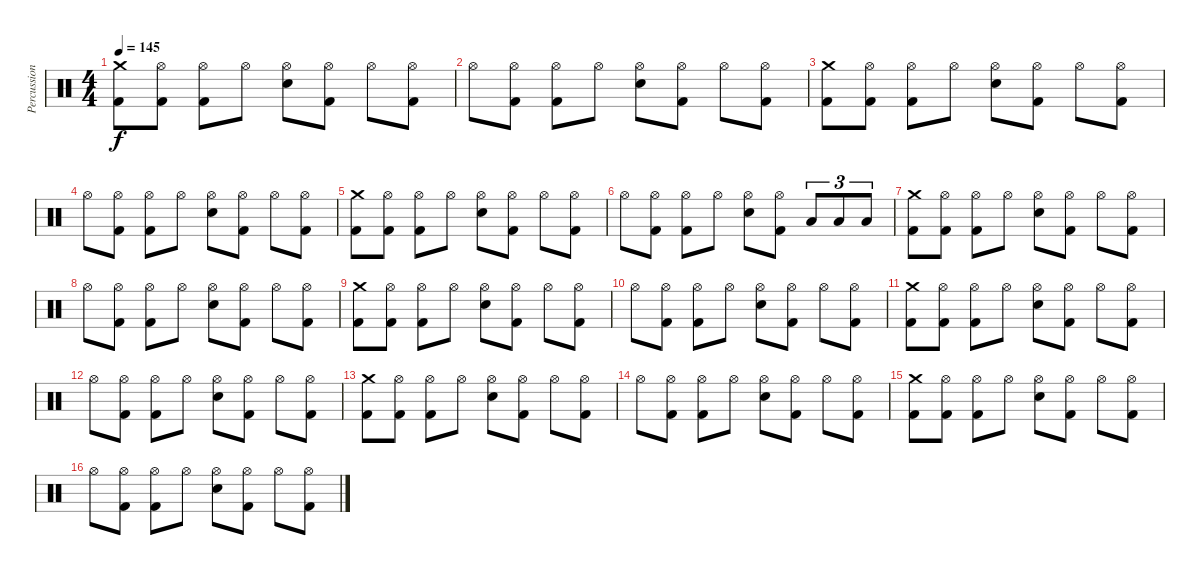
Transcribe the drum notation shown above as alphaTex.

\track ("Percussion" "Percussion") {instrument percussion}
\staff {score}
\articulation defaults
\ts (4 4)
\tempo 145
\clef neutral
\ks c
("Crash medium (hit)" "Kick (hit) 2").8{dy f} ("Hi-Hat (open)" "Kick (hit) 2").8 ("Hi-Hat (open)" "Kick (hit) 2").8 "Hi-Hat (open)".8 ("Hi-Hat (open)" "Electric Snare (hit)").8 ("Hi-Hat (open)" "Kick (hit) 2").8 "Hi-Hat (open)".8 ("Hi-Hat (open)" "Kick (hit) 2").8 |
"Hi-Hat (open)".8 ("Hi-Hat (open)" "Kick (hit) 2").8 ("Hi-Hat (open)" "Kick (hit) 2").8 "Hi-Hat (open)".8 ("Hi-Hat (open)" "Electric Snare (hit)").8 ("Hi-Hat (open)" "Kick (hit) 2").8 "Hi-Hat (open)".8 ("Hi-Hat (open)" "Kick (hit) 2").8 |
("Crash medium (hit)" "Kick (hit) 2").8 ("Hi-Hat (open)" "Kick (hit) 2").8 ("Hi-Hat (open)" "Kick (hit) 2").8 "Hi-Hat (open)".8 ("Hi-Hat (open)" "Electric Snare (hit)").8 ("Hi-Hat (open)" "Kick (hit) 2").8 "Hi-Hat (open)".8 ("Hi-Hat (open)" "Kick (hit) 2").8 |
"Hi-Hat (open)".8 ("Hi-Hat (open)" "Kick (hit) 2").8 ("Hi-Hat (open)" "Kick (hit) 2").8 "Hi-Hat (open)".8 ("Hi-Hat (open)" "Electric Snare (hit)").8 ("Hi-Hat (open)" "Kick (hit) 2").8 "Hi-Hat (open)".8 ("Hi-Hat (open)" "Kick (hit) 2").8 |
("Crash medium (hit)" "Kick (hit) 2").8 ("Hi-Hat (open)" "Kick (hit) 2").8 ("Hi-Hat (open)" "Kick (hit) 2").8 "Hi-Hat (open)".8 ("Hi-Hat (open)" "Electric Snare (hit)").8 ("Hi-Hat (open)" "Kick (hit) 2").8 "Hi-Hat (open)".8 ("Hi-Hat (open)" "Kick (hit) 2").8 |
"Hi-Hat (open)".8 ("Hi-Hat (open)" "Kick (hit) 2").8 ("Hi-Hat (open)" "Kick (hit) 2").8 "Hi-Hat (open)".8 ("Hi-Hat (open)" "Electric Snare (hit)").8 ("Hi-Hat (open)" "Kick (hit) 2").8 "Low Tom (hit)".8{tu (3 2)} "Low Tom (hit)".8{tu (3 2)} "Low Tom (hit)".8{tu (3 2)} |
("Crash medium (hit)" "Kick (hit) 2").8 ("Hi-Hat (open)" "Kick (hit) 2").8 ("Hi-Hat (open)" "Kick (hit) 2").8 "Hi-Hat (open)".8 ("Hi-Hat (open)" "Electric Snare (hit)").8 ("Hi-Hat (open)" "Kick (hit) 2").8 "Hi-Hat (open)".8 ("Hi-Hat (open)" "Kick (hit) 2").8 |
"Hi-Hat (open)".8 ("Hi-Hat (open)" "Kick (hit) 2").8 ("Hi-Hat (open)" "Kick (hit) 2").8 "Hi-Hat (open)".8 ("Hi-Hat (open)" "Electric Snare (hit)").8 ("Hi-Hat (open)" "Kick (hit) 2").8 "Hi-Hat (open)".8 ("Hi-Hat (open)" "Kick (hit) 2").8 |
("Crash medium (hit)" "Kick (hit) 2").8 ("Hi-Hat (open)" "Kick (hit) 2").8 ("Hi-Hat (open)" "Kick (hit) 2").8 "Hi-Hat (open)".8 ("Hi-Hat (open)" "Electric Snare (hit)").8 ("Hi-Hat (open)" "Kick (hit) 2").8 "Hi-Hat (open)".8 ("Hi-Hat (open)" "Kick (hit) 2").8 |
"Hi-Hat (open)".8 ("Hi-Hat (open)" "Kick (hit) 2").8 ("Hi-Hat (open)" "Kick (hit) 2").8 "Hi-Hat (open)".8 ("Hi-Hat (open)" "Electric Snare (hit)").8 ("Hi-Hat (open)" "Kick (hit) 2").8 "Hi-Hat (open)".8 ("Hi-Hat (open)" "Kick (hit) 2").8 |
("Crash medium (hit)" "Kick (hit) 2").8 ("Hi-Hat (open)" "Kick (hit) 2").8 ("Hi-Hat (open)" "Kick (hit) 2").8 "Hi-Hat (open)".8 ("Hi-Hat (open)" "Electric Snare (hit)").8 ("Hi-Hat (open)" "Kick (hit) 2").8 "Hi-Hat (open)".8 ("Hi-Hat (open)" "Kick (hit) 2").8 |
"Hi-Hat (open)".8 ("Hi-Hat (open)" "Kick (hit) 2").8 ("Hi-Hat (open)" "Kick (hit) 2").8 "Hi-Hat (open)".8 ("Hi-Hat (open)" "Electric Snare (hit)").8 ("Hi-Hat (open)" "Kick (hit) 2").8 "Hi-Hat (open)".8 ("Hi-Hat (open)" "Kick (hit) 2").8 |
("Crash medium (hit)" "Kick (hit) 2").8 ("Hi-Hat (open)" "Kick (hit) 2").8 ("Hi-Hat (open)" "Kick (hit) 2").8 "Hi-Hat (open)".8 ("Hi-Hat (open)" "Electric Snare (hit)").8 ("Hi-Hat (open)" "Kick (hit) 2").8 "Hi-Hat (open)".8 ("Hi-Hat (open)" "Kick (hit) 2").8 |
"Hi-Hat (open)".8 ("Hi-Hat (open)" "Kick (hit) 2").8 ("Hi-Hat (open)" "Kick (hit) 2").8 "Hi-Hat (open)".8 ("Hi-Hat (open)" "Electric Snare (hit)").8 ("Hi-Hat (open)" "Kick (hit) 2").8 "Hi-Hat (open)".8 ("Hi-Hat (open)" "Kick (hit) 2").8 |
("Crash medium (hit)" "Kick (hit) 2").8 ("Hi-Hat (open)" "Kick (hit) 2").8 ("Hi-Hat (open)" "Kick (hit) 2").8 "Hi-Hat (open)".8 ("Hi-Hat (open)" "Electric Snare (hit)").8 ("Hi-Hat (open)" "Kick (hit) 2").8 "Hi-Hat (open)".8 ("Hi-Hat (open)" "Kick (hit) 2").8 |
"Hi-Hat (open)".8 ("Hi-Hat (open)" "Kick (hit) 2").8 ("Hi-Hat (open)" "Kick (hit) 2").8 "Hi-Hat (open)".8 ("Hi-Hat (open)" "Electric Snare (hit)").8 ("Hi-Hat (open)" "Kick (hit) 2").8 "Hi-Hat (open)".8 ("Hi-Hat (open)" "Kick (hit) 2").8
